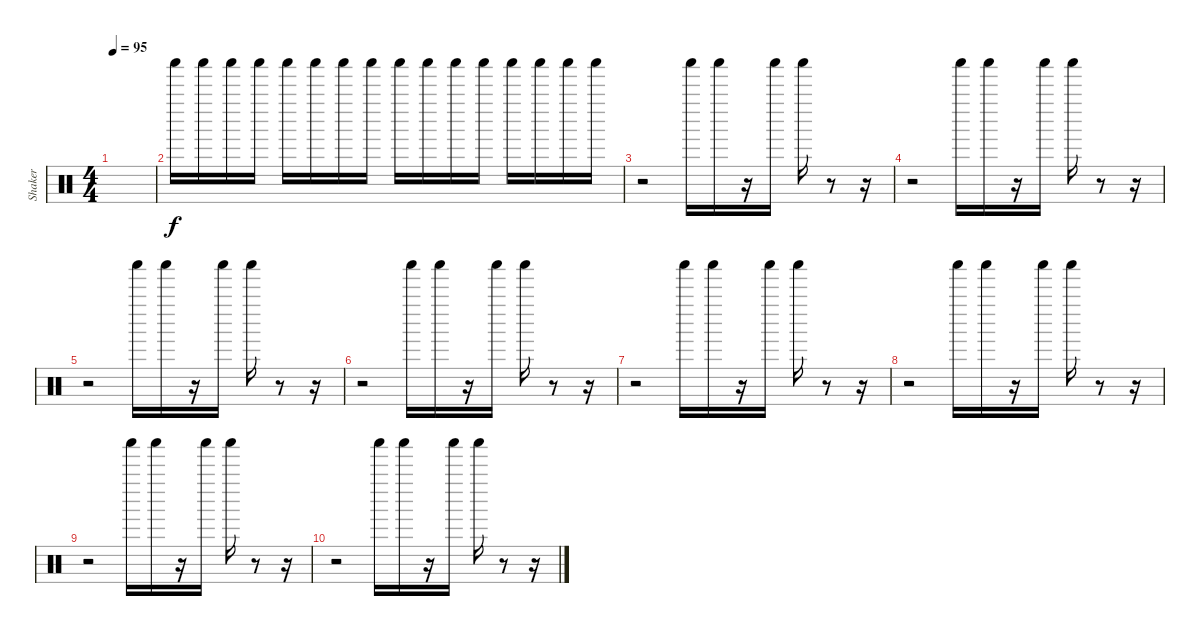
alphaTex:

\track ("Shaker" "Shaker") {instrument percussion}
\staff {score}
\articulation defaults
\ts (4 4)
\tempo 95
\clef neutral
\ks c
|
"Shaker (hit)".16 "Shaker (hit)".16 "Shaker (hit)".16 "Shaker (hit)".16 "Shaker (hit)".16 "Shaker (hit)".16 "Shaker (hit)".16 "Shaker (hit)".16 "Shaker (hit)".16 "Shaker (hit)".16 "Shaker (hit)".16 "Shaker (hit)".16 "Shaker (hit)".16 "Shaker (hit)".16 "Shaker (hit)".16 "Shaker (hit)".16 |
r.2 "Shaker (hit)".16 "Shaker (hit)".16 r.16 "Shaker (hit)".16 "Shaker (hit)".16 r.8 r.16 |
r.2 "Shaker (hit)".16 "Shaker (hit)".16 r.16 "Shaker (hit)".16 "Shaker (hit)".16 r.8 r.16 |
r.2 "Shaker (hit)".16 "Shaker (hit)".16 r.16 "Shaker (hit)".16 "Shaker (hit)".16 r.8 r.16 |
r.2 "Shaker (hit)".16 "Shaker (hit)".16 r.16 "Shaker (hit)".16 "Shaker (hit)".16 r.8 r.16 |
r.2 "Shaker (hit)".16 "Shaker (hit)".16 r.16 "Shaker (hit)".16 "Shaker (hit)".16 r.8 r.16 |
r.2 "Shaker (hit)".16 "Shaker (hit)".16 r.16 "Shaker (hit)".16 "Shaker (hit)".16 r.8 r.16 |
r.2 "Shaker (hit)".16 "Shaker (hit)".16 r.16 "Shaker (hit)".16 "Shaker (hit)".16 r.8 r.16 |
r.2 "Shaker (hit)".16 "Shaker (hit)".16 r.16 "Shaker (hit)".16 "Shaker (hit)".16 r.8 r.16
